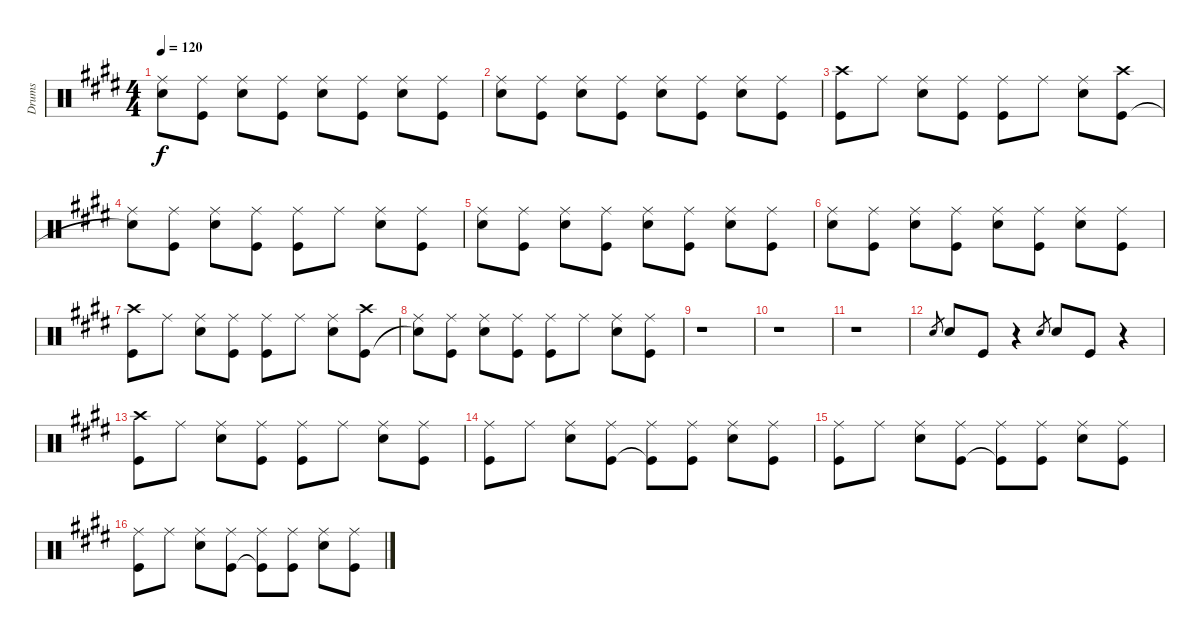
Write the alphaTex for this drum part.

\track ("Drums" "Drums") {instrument percussion}
\staff {score}
\articulation defaults
\ts (4 4)
\tempo 120
\clef neutral
\ks e
("Ride (middle)" "Snare (hit) 2").8{dy f} ("Ride (middle)" "Kick (hit)").8 ("Ride (middle)" "Snare (hit) 2").8 ("Ride (middle)" "Kick (hit)").8 ("Ride (middle)" "Snare (hit) 2").8 ("Ride (middle)" "Kick (hit)").8 ("Ride (middle)" "Snare (hit) 2").8 ("Ride (middle)" "Kick (hit)").8 |
("Ride (middle)" "Snare (hit) 2").8 ("Ride (middle)" "Kick (hit)").8 ("Ride (middle)" "Snare (hit) 2").8 ("Ride (middle)" "Kick (hit)").8 ("Ride (middle)" "Snare (hit) 2").8 ("Ride (middle)" "Kick (hit)").8 ("Ride (middle)" "Snare (hit) 2").8 ("Ride (middle)" "Kick (hit)").8 |
("Crash high (hit)" "Kick (hit)").8 "Ride (middle)".8 ("Ride (middle)" "Snare (hit) 2").8 ("Ride (middle)" "Kick (hit)").8 ("Ride (middle)" "Kick (hit)").8 "Ride (middle)".8 ("Ride (middle)" "Snare (hit) 2").8 ("Crash high (hit)" "Kick (hit)").8 |
("Ride (middle)" "Snare (hit)"{t}).8 ("Ride (middle)" "Kick (hit)").8 ("Ride (middle)" "Snare (hit) 2").8 ("Ride (middle)" "Kick (hit)").8 ("Ride (middle)" "Kick (hit)").8 "Ride (middle)".8 ("Ride (middle)" "Snare (hit) 2").8 ("Ride (middle)" "Kick (hit)").8 |
("Ride (middle)" "Snare (hit) 2").8 ("Ride (middle)" "Kick (hit)").8 ("Ride (middle)" "Snare (hit) 2").8 ("Ride (middle)" "Kick (hit)").8 ("Ride (middle)" "Snare (hit) 2").8 ("Ride (middle)" "Kick (hit)").8 ("Ride (middle)" "Snare (hit) 2").8 ("Ride (middle)" "Kick (hit)").8 |
("Ride (middle)" "Snare (hit) 2").8 ("Ride (middle)" "Kick (hit)").8 ("Ride (middle)" "Snare (hit) 2").8 ("Ride (middle)" "Kick (hit)").8 ("Ride (middle)" "Snare (hit) 2").8 ("Ride (middle)" "Kick (hit)").8 ("Ride (middle)" "Snare (hit) 2").8 ("Ride (middle)" "Kick (hit)").8 |
("Crash high (hit)" "Kick (hit)").8 "Ride (middle)".8 ("Ride (middle)" "Snare (hit) 2").8 ("Ride (middle)" "Kick (hit)").8 ("Ride (middle)" "Kick (hit)").8 "Ride (middle)".8 ("Ride (middle)" "Snare (hit) 2").8 ("Crash high (hit)" "Kick (hit)").8 |
("Ride (middle)" "Snare (hit)"{t}).8 ("Ride (middle)" "Kick (hit)").8 ("Ride (middle)" "Snare (hit) 2").8 ("Ride (middle)" "Kick (hit)").8 ("Ride (middle)" "Kick (hit)").8 "Ride (middle)".8 ("Ride (middle)" "Snare (hit) 2").8 ("Ride (middle)" "Kick (hit)").8 |
r.1 |
r.1 |
r.1 |
"Snare (hit) 2".8{gr} "Snare (hit) 2".8 "Kick (hit)".8 r.4 "Snare (hit) 2".8{gr} "Snare (hit) 2".8 "Kick (hit)".8 r.4 |
("Crash high (hit)" "Kick (hit)").8 "Ride (middle)".8 ("Ride (middle)" "Snare (hit) 2").8 ("Ride (middle)" "Kick (hit)").8 ("Ride (middle)" "Kick (hit)").8 "Ride (middle)".8 ("Ride (middle)" "Snare (hit) 2").8 ("Ride (middle)" "Kick (hit)").8 |
("Ride (middle)" "Kick (hit)").8 "Ride (middle)".8 ("Ride (middle)" "Snare (hit) 2").8 ("Ride (middle)" "Kick (hit)").8 ("Ride (middle)" "Kick (hit)"{t}).8 ("Ride (middle)" "Kick (hit)").8 ("Ride (middle)" "Snare (hit) 2").8 ("Ride (middle)" "Kick (hit)").8 |
("Ride (middle)" "Kick (hit)").8 "Ride (middle)".8 ("Ride (middle)" "Snare (hit) 2").8 ("Ride (middle)" "Kick (hit)").8 ("Ride (middle)" "Kick (hit)"{t}).8 ("Ride (middle)" "Kick (hit)").8 ("Ride (middle)" "Snare (hit) 2").8 ("Ride (middle)" "Kick (hit)").8 |
("Ride (middle)" "Kick (hit)").8 "Ride (middle)".8 ("Ride (middle)" "Snare (hit) 2").8 ("Ride (middle)" "Kick (hit)").8 ("Ride (middle)" "Kick (hit)"{t}).8 ("Ride (middle)" "Kick (hit)").8 ("Ride (middle)" "Snare (hit) 2").8 ("Ride (middle)" "Kick (hit)").8
